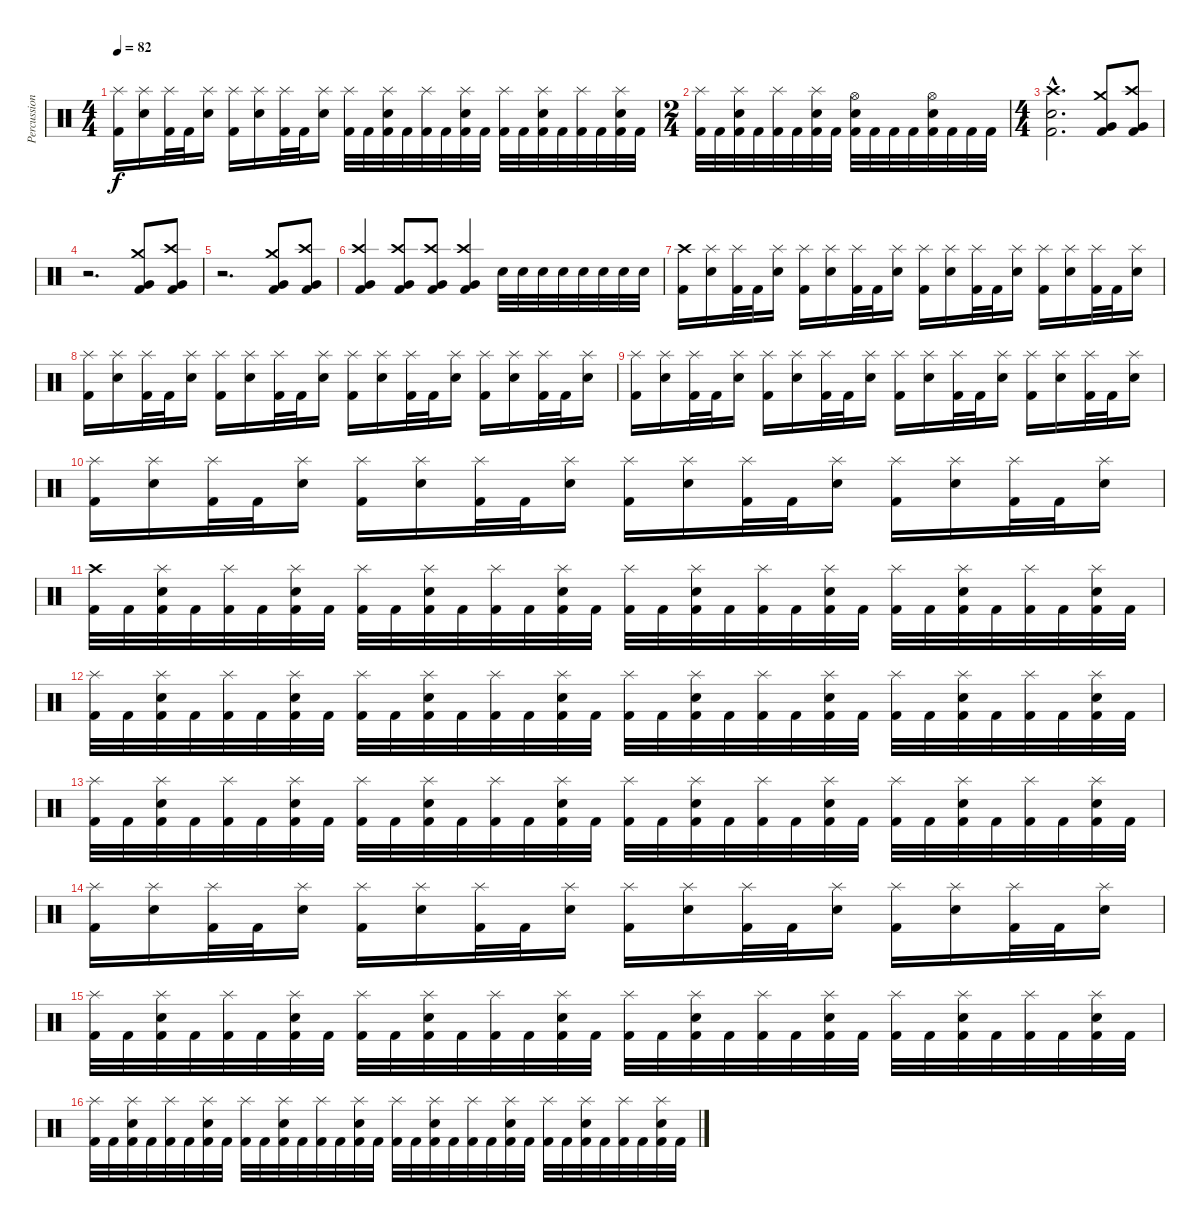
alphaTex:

\track ("Percussion" "Percussion") {instrument percussion}
\staff {score}
\articulation defaults
\ts (4 4)
\tempo 82
\clef neutral
\ks c
("Splash (hit)" "Kick (hit) 2").16{dy f} ("Splash (hit)" "Electric Snare (hit)").16 ("Splash (hit)" "Kick (hit) 2").32 "Kick (hit) 2".32 ("Splash (hit)" "Electric Snare (hit)").16 ("Splash (hit)" "Kick (hit) 2").16 ("Splash (hit)" "Electric Snare (hit)").16 ("Splash (hit)" "Kick (hit) 2").32 "Kick (hit) 2".32 ("Splash (hit)" "Electric Snare (hit)").16 ("Splash (hit)" "Kick (hit) 2").32 "Kick (hit) 2".32 ("Splash (hit)" "Electric Snare (hit)" "Kick (hit) 2").32 "Kick (hit) 2".32 ("Splash (hit)" "Kick (hit) 2").32 "Kick (hit) 2".32 ("Splash (hit)" "Electric Snare (hit)" "Kick (hit) 2").32 "Kick (hit) 2".32 ("Splash (hit)" "Kick (hit) 2").32 "Kick (hit) 2".32 ("Splash (hit)" "Electric Snare (hit)" "Kick (hit) 2").32 "Kick (hit) 2".32 ("Splash (hit)" "Kick (hit) 2").32 "Kick (hit) 2".32 ("Splash (hit)" "Electric Snare (hit)" "Kick (hit) 2").32 "Kick (hit) 2".32 |
\ts (2 4)
("Splash (hit)" "Kick (hit) 2").32 "Kick (hit) 2".32 ("Splash (hit)" "Electric Snare (hit)" "Kick (hit) 2").32 "Kick (hit) 2".32 ("Splash (hit)" "Kick (hit) 2").32 "Kick (hit) 2".32 ("Splash (hit)" "Electric Snare (hit)" "Kick (hit) 2").32 "Kick (hit) 2".32 ("Hi-Hat (open)" "Electric Snare (hit)" "Kick (hit) 2").32 "Kick (hit) 2".32 "Kick (hit) 2".32 "Kick (hit) 2".32 ("Hi-Hat (open)" "Electric Snare (hit)" "Kick (hit) 2").32 "Kick (hit) 2".32 "Kick (hit) 2".32 "Kick (hit) 2".32 |
\ts (4 4)
\section ("" "")
("Crash high (hit)"{hac} "Electric Snare (hit)"{hac} "Kick (hit) 2"{hac}).2{d} ("Crash medium (hit)" "Very Low Tom (hit)" "Kick (hit) 2").8 ("Crash high (hit)" "Very Low Tom (hit)" "Kick (hit) 2").8 |
r.2{d} ("Crash medium (hit)" "Very Low Tom (hit)" "Kick (hit) 2").8 ("Crash high (hit)" "Very Low Tom (hit)" "Kick (hit) 2").8 |
r.2{d} ("Crash medium (hit)" "Very Low Tom (hit)" "Kick (hit) 2").8 ("Crash high (hit)" "Very Low Tom (hit)" "Kick (hit) 2").8 |
("Crash high (hit)" "Very Low Tom (hit)" "Kick (hit) 2").4 ("Crash high (hit)" "Very Low Tom (hit)" "Kick (hit) 2").8 ("Crash high (hit)" "Very Low Tom (hit)" "Kick (hit) 2").8 ("Crash high (hit)" "Very Low Tom (hit)" "Kick (hit) 2").4 "Electric Snare (hit)".32 "Electric Snare (hit)".32 "Electric Snare (hit)".32 "Electric Snare (hit)".32 "Electric Snare (hit)".32 "Electric Snare (hit)".32 "Electric Snare (hit)".32 "Electric Snare (hit)".32 |
\section ("" "")
("Crash high (hit)" "Kick (hit) 2").16 ("Splash (hit)" "Electric Snare (hit)").16 ("Splash (hit)" "Kick (hit) 2").32 "Kick (hit) 2".32 ("Splash (hit)" "Electric Snare (hit)").16 ("Splash (hit)" "Kick (hit) 2").16 ("Splash (hit)" "Electric Snare (hit)").16 ("Splash (hit)" "Kick (hit) 2").32 "Kick (hit) 2".32 ("Splash (hit)" "Electric Snare (hit)").16 ("Splash (hit)" "Kick (hit) 2").16 ("Splash (hit)" "Electric Snare (hit)").16 ("Splash (hit)" "Kick (hit) 2").32 "Kick (hit) 2".32 ("Splash (hit)" "Electric Snare (hit)").16 ("Splash (hit)" "Kick (hit) 2").16 ("Splash (hit)" "Electric Snare (hit)").16 ("Splash (hit)" "Kick (hit) 2").32 "Kick (hit) 2".32 ("Splash (hit)" "Electric Snare (hit)").16 |
("Splash (hit)" "Kick (hit) 2").16 ("Splash (hit)" "Electric Snare (hit)").16 ("Splash (hit)" "Kick (hit) 2").32 "Kick (hit) 2".32 ("Splash (hit)" "Electric Snare (hit)").16 ("Splash (hit)" "Kick (hit) 2").16 ("Splash (hit)" "Electric Snare (hit)").16 ("Splash (hit)" "Kick (hit) 2").32 "Kick (hit) 2".32 ("Splash (hit)" "Electric Snare (hit)").16 ("Splash (hit)" "Kick (hit) 2").16 ("Splash (hit)" "Electric Snare (hit)").16 ("Splash (hit)" "Kick (hit) 2").32 "Kick (hit) 2".32 ("Splash (hit)" "Electric Snare (hit)").16 ("Splash (hit)" "Kick (hit) 2").16 ("Splash (hit)" "Electric Snare (hit)").16 ("Splash (hit)" "Kick (hit) 2").32 "Kick (hit) 2".32 ("Splash (hit)" "Electric Snare (hit)").16 |
("Splash (hit)" "Kick (hit) 2").16 ("Splash (hit)" "Electric Snare (hit)").16 ("Splash (hit)" "Kick (hit) 2").32 "Kick (hit) 2".32 ("Splash (hit)" "Electric Snare (hit)").16 ("Splash (hit)" "Kick (hit) 2").16 ("Splash (hit)" "Electric Snare (hit)").16 ("Splash (hit)" "Kick (hit) 2").32 "Kick (hit) 2".32 ("Splash (hit)" "Electric Snare (hit)").16 ("Splash (hit)" "Kick (hit) 2").16 ("Splash (hit)" "Electric Snare (hit)").16 ("Splash (hit)" "Kick (hit) 2").32 "Kick (hit) 2".32 ("Splash (hit)" "Electric Snare (hit)").16 ("Splash (hit)" "Kick (hit) 2").16 ("Splash (hit)" "Electric Snare (hit)").16 ("Splash (hit)" "Kick (hit) 2").32 "Kick (hit) 2".32 ("Splash (hit)" "Electric Snare (hit)").16 |
("Splash (hit)" "Kick (hit) 2").16 ("Splash (hit)" "Electric Snare (hit)").16 ("Splash (hit)" "Kick (hit) 2").32 "Kick (hit) 2".32 ("Splash (hit)" "Electric Snare (hit)").16 ("Splash (hit)" "Kick (hit) 2").16 ("Splash (hit)" "Electric Snare (hit)").16 ("Splash (hit)" "Kick (hit) 2").32 "Kick (hit) 2".32 ("Splash (hit)" "Electric Snare (hit)").16 ("Splash (hit)" "Kick (hit) 2").16 ("Splash (hit)" "Electric Snare (hit)").16 ("Splash (hit)" "Kick (hit) 2").32 "Kick (hit) 2".32 ("Splash (hit)" "Electric Snare (hit)").16 ("Splash (hit)" "Kick (hit) 2").16 ("Splash (hit)" "Electric Snare (hit)").16 ("Splash (hit)" "Kick (hit) 2").32 "Kick (hit) 2".32 ("Splash (hit)" "Electric Snare (hit)").16 |
\section ("" "")
("Crash high (hit)" "Kick (hit) 2").32 "Kick (hit) 2".32 ("Splash (hit)" "Electric Snare (hit)" "Kick (hit) 2").32 "Kick (hit) 2".32 ("Splash (hit)" "Kick (hit) 2").32 "Kick (hit) 2".32 ("Splash (hit)" "Electric Snare (hit)" "Kick (hit) 2").32 "Kick (hit) 2".32 ("Splash (hit)" "Kick (hit) 2").32 "Kick (hit) 2".32 ("Splash (hit)" "Electric Snare (hit)" "Kick (hit) 2").32 "Kick (hit) 2".32 ("Splash (hit)" "Kick (hit) 2").32 "Kick (hit) 2".32 ("Splash (hit)" "Electric Snare (hit)" "Kick (hit) 2").32 "Kick (hit) 2".32 ("Splash (hit)" "Kick (hit) 2").32 "Kick (hit) 2".32 ("Splash (hit)" "Electric Snare (hit)" "Kick (hit) 2").32 "Kick (hit) 2".32 ("Splash (hit)" "Kick (hit) 2").32 "Kick (hit) 2".32 ("Splash (hit)" "Electric Snare (hit)" "Kick (hit) 2").32 "Kick (hit) 2".32 ("Splash (hit)" "Kick (hit) 2").32 "Kick (hit) 2".32 ("Splash (hit)" "Electric Snare (hit)" "Kick (hit) 2").32 "Kick (hit) 2".32 ("Splash (hit)" "Kick (hit) 2").32 "Kick (hit) 2".32 ("Splash (hit)" "Electric Snare (hit)" "Kick (hit) 2").32 "Kick (hit) 2".32 |
("Splash (hit)" "Kick (hit) 2").32 "Kick (hit) 2".32 ("Splash (hit)" "Electric Snare (hit)" "Kick (hit) 2").32 "Kick (hit) 2".32 ("Splash (hit)" "Kick (hit) 2").32 "Kick (hit) 2".32 ("Splash (hit)" "Electric Snare (hit)" "Kick (hit) 2").32 "Kick (hit) 2".32 ("Splash (hit)" "Kick (hit) 2").32 "Kick (hit) 2".32 ("Splash (hit)" "Electric Snare (hit)" "Kick (hit) 2").32 "Kick (hit) 2".32 ("Splash (hit)" "Kick (hit) 2").32 "Kick (hit) 2".32 ("Splash (hit)" "Electric Snare (hit)" "Kick (hit) 2").32 "Kick (hit) 2".32 ("Splash (hit)" "Kick (hit) 2").32 "Kick (hit) 2".32 ("Splash (hit)" "Electric Snare (hit)" "Kick (hit) 2").32 "Kick (hit) 2".32 ("Splash (hit)" "Kick (hit) 2").32 "Kick (hit) 2".32 ("Splash (hit)" "Electric Snare (hit)" "Kick (hit) 2").32 "Kick (hit) 2".32 ("Splash (hit)" "Kick (hit) 2").32 "Kick (hit) 2".32 ("Splash (hit)" "Electric Snare (hit)" "Kick (hit) 2").32 "Kick (hit) 2".32 ("Splash (hit)" "Kick (hit) 2").32 "Kick (hit) 2".32 ("Splash (hit)" "Electric Snare (hit)" "Kick (hit) 2").32 "Kick (hit) 2".32 |
("Splash (hit)" "Kick (hit) 2").32 "Kick (hit) 2".32 ("Splash (hit)" "Electric Snare (hit)" "Kick (hit) 2").32 "Kick (hit) 2".32 ("Splash (hit)" "Kick (hit) 2").32 "Kick (hit) 2".32 ("Splash (hit)" "Electric Snare (hit)" "Kick (hit) 2").32 "Kick (hit) 2".32 ("Splash (hit)" "Kick (hit) 2").32 "Kick (hit) 2".32 ("Splash (hit)" "Electric Snare (hit)" "Kick (hit) 2").32 "Kick (hit) 2".32 ("Splash (hit)" "Kick (hit) 2").32 "Kick (hit) 2".32 ("Splash (hit)" "Electric Snare (hit)" "Kick (hit) 2").32 "Kick (hit) 2".32 ("Splash (hit)" "Kick (hit) 2").32 "Kick (hit) 2".32 ("Splash (hit)" "Electric Snare (hit)" "Kick (hit) 2").32 "Kick (hit) 2".32 ("Splash (hit)" "Kick (hit) 2").32 "Kick (hit) 2".32 ("Splash (hit)" "Electric Snare (hit)" "Kick (hit) 2").32 "Kick (hit) 2".32 ("Splash (hit)" "Kick (hit) 2").32 "Kick (hit) 2".32 ("Splash (hit)" "Electric Snare (hit)" "Kick (hit) 2").32 "Kick (hit) 2".32 ("Splash (hit)" "Kick (hit) 2").32 "Kick (hit) 2".32 ("Splash (hit)" "Electric Snare (hit)" "Kick (hit) 2").32 "Kick (hit) 2".32 |
("Splash (hit)" "Kick (hit) 2").16 ("Splash (hit)" "Electric Snare (hit)").16 ("Splash (hit)" "Kick (hit) 2").32 "Kick (hit) 2".32 ("Splash (hit)" "Electric Snare (hit)").16 ("Splash (hit)" "Kick (hit) 2").16 ("Splash (hit)" "Electric Snare (hit)").16 ("Splash (hit)" "Kick (hit) 2").32 "Kick (hit) 2".32 ("Splash (hit)" "Electric Snare (hit)").16 ("Splash (hit)" "Kick (hit) 2").16 ("Splash (hit)" "Electric Snare (hit)").16 ("Splash (hit)" "Kick (hit) 2").32 "Kick (hit) 2".32 ("Splash (hit)" "Electric Snare (hit)").16 ("Splash (hit)" "Kick (hit) 2").16 ("Splash (hit)" "Electric Snare (hit)").16 ("Splash (hit)" "Kick (hit) 2").32 "Kick (hit) 2".32 ("Splash (hit)" "Electric Snare (hit)").16 |
\section ("" "")
("Splash (hit)" "Kick (hit) 2").32 "Kick (hit) 2".32 ("Splash (hit)" "Electric Snare (hit)" "Kick (hit) 2").32 "Kick (hit) 2".32 ("Splash (hit)" "Kick (hit) 2").32 "Kick (hit) 2".32 ("Splash (hit)" "Electric Snare (hit)" "Kick (hit) 2").32 "Kick (hit) 2".32 ("Splash (hit)" "Kick (hit) 2").32 "Kick (hit) 2".32 ("Splash (hit)" "Electric Snare (hit)" "Kick (hit) 2").32 "Kick (hit) 2".32 ("Splash (hit)" "Kick (hit) 2").32 "Kick (hit) 2".32 ("Splash (hit)" "Electric Snare (hit)" "Kick (hit) 2").32 "Kick (hit) 2".32 ("Splash (hit)" "Kick (hit) 2").32 "Kick (hit) 2".32 ("Splash (hit)" "Electric Snare (hit)" "Kick (hit) 2").32 "Kick (hit) 2".32 ("Splash (hit)" "Kick (hit) 2").32 "Kick (hit) 2".32 ("Splash (hit)" "Electric Snare (hit)" "Kick (hit) 2").32 "Kick (hit) 2".32 ("Splash (hit)" "Kick (hit) 2").32 "Kick (hit) 2".32 ("Splash (hit)" "Electric Snare (hit)" "Kick (hit) 2").32 "Kick (hit) 2".32 ("Splash (hit)" "Kick (hit) 2").32 "Kick (hit) 2".32 ("Splash (hit)" "Electric Snare (hit)" "Kick (hit) 2").32 "Kick (hit) 2".32 |
("Splash (hit)" "Kick (hit) 2").32 "Kick (hit) 2".32 ("Splash (hit)" "Electric Snare (hit)" "Kick (hit) 2").32 "Kick (hit) 2".32 ("Splash (hit)" "Kick (hit) 2").32 "Kick (hit) 2".32 ("Splash (hit)" "Electric Snare (hit)" "Kick (hit) 2").32 "Kick (hit) 2".32 ("Splash (hit)" "Kick (hit) 2").32 "Kick (hit) 2".32 ("Splash (hit)" "Electric Snare (hit)" "Kick (hit) 2").32 "Kick (hit) 2".32 ("Splash (hit)" "Kick (hit) 2").32 "Kick (hit) 2".32 ("Splash (hit)" "Electric Snare (hit)" "Kick (hit) 2").32 "Kick (hit) 2".32 ("Splash (hit)" "Kick (hit) 2").32 "Kick (hit) 2".32 ("Splash (hit)" "Electric Snare (hit)" "Kick (hit) 2").32 "Kick (hit) 2".32 ("Splash (hit)" "Kick (hit) 2").32 "Kick (hit) 2".32 ("Splash (hit)" "Electric Snare (hit)" "Kick (hit) 2").32 "Kick (hit) 2".32 ("Splash (hit)" "Kick (hit) 2").32 "Kick (hit) 2".32 ("Splash (hit)" "Electric Snare (hit)" "Kick (hit) 2").32 "Kick (hit) 2".32 ("Splash (hit)" "Kick (hit) 2").32 "Kick (hit) 2".32 ("Splash (hit)" "Electric Snare (hit)" "Kick (hit) 2").32 "Kick (hit) 2".32
